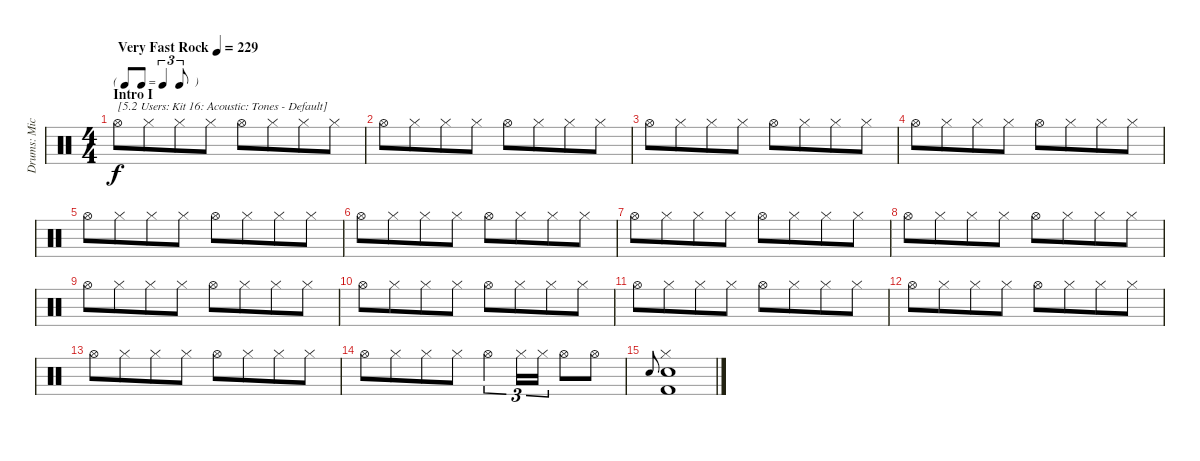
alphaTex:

\track ("Drums: Mick" "Drums: Mic") {instrument percussion}
\staff {score}
\articulation defaults
\ts (4 4)
\tf triplet8th
\section ("" "Intro I")
\tempo (229 "Very Fast Rock")
\clef neutral
\ks c "Hi-Hat (open)".8{txt "[5.2 Users: Kit 16: Acoustic: Tones - Default]" dy f} "Hi-Hat (closed)".8{beam merge} "Hi-Hat (closed)".8 "Hi-Hat (closed)".8 "Hi-Hat (open)".8 "Hi-Hat (closed)".8{beam merge} "Hi-Hat (closed)".8 "Hi-Hat (closed)".8
|
"Hi-Hat (open)".8 "Hi-Hat (closed)".8{beam merge} "Hi-Hat (closed)".8 "Hi-Hat (closed)".8 "Hi-Hat (open)".8 "Hi-Hat (closed)".8{beam merge} "Hi-Hat (closed)".8 "Hi-Hat (closed)".8 |
"Hi-Hat (open)".8 "Hi-Hat (closed)".8{beam merge} "Hi-Hat (closed)".8 "Hi-Hat (closed)".8 "Hi-Hat (open)".8 "Hi-Hat (closed)".8{beam merge} "Hi-Hat (closed)".8 "Hi-Hat (closed)".8 |
"Hi-Hat (open)".8 "Hi-Hat (closed)".8{beam merge} "Hi-Hat (closed)".8 "Hi-Hat (closed)".8 "Hi-Hat (open)".8 "Hi-Hat (closed)".8{beam merge} "Hi-Hat (closed)".8 "Hi-Hat (closed)".8 |
"Hi-Hat (open)".8 "Hi-Hat (closed)".8{beam merge} "Hi-Hat (closed)".8 "Hi-Hat (closed)".8 "Hi-Hat (open)".8 "Hi-Hat (closed)".8{beam merge} "Hi-Hat (closed)".8 "Hi-Hat (closed)".8 |
"Hi-Hat (open)".8 "Hi-Hat (closed)".8{beam merge} "Hi-Hat (closed)".8 "Hi-Hat (closed)".8 "Hi-Hat (open)".8 "Hi-Hat (closed)".8{beam merge} "Hi-Hat (closed)".8 "Hi-Hat (closed)".8 |
"Hi-Hat (open)".8 "Hi-Hat (closed)".8{beam merge} "Hi-Hat (closed)".8 "Hi-Hat (closed)".8 "Hi-Hat (open)".8 "Hi-Hat (closed)".8{beam merge} "Hi-Hat (closed)".8 "Hi-Hat (closed)".8 |
"Hi-Hat (open)".8 "Hi-Hat (closed)".8{beam merge} "Hi-Hat (closed)".8 "Hi-Hat (closed)".8 "Hi-Hat (open)".8 "Hi-Hat (closed)".8{beam merge} "Hi-Hat (closed)".8 "Hi-Hat (closed)".8 |
"Hi-Hat (open)".8 "Hi-Hat (closed)".8{beam merge} "Hi-Hat (closed)".8 "Hi-Hat (closed)".8 "Hi-Hat (open)".8 "Hi-Hat (closed)".8{beam merge} "Hi-Hat (closed)".8 "Hi-Hat (closed)".8 |
"Hi-Hat (open)".8 "Hi-Hat (closed)".8{beam merge} "Hi-Hat (closed)".8 "Hi-Hat (closed)".8 "Hi-Hat (open)".8 "Hi-Hat (closed)".8{beam merge} "Hi-Hat (closed)".8 "Hi-Hat (closed)".8 |
"Hi-Hat (open)".8 "Hi-Hat (closed)".8{beam merge} "Hi-Hat (closed)".8 "Hi-Hat (closed)".8 "Hi-Hat (open)".8 "Hi-Hat (closed)".8{beam merge} "Hi-Hat (closed)".8 "Hi-Hat (closed)".8 |
"Hi-Hat (open)".8 "Hi-Hat (closed)".8{beam merge} "Hi-Hat (closed)".8 "Hi-Hat (closed)".8 "Hi-Hat (open)".8 "Hi-Hat (closed)".8{beam merge} "Hi-Hat (closed)".8 "Hi-Hat (closed)".8 |
"Hi-Hat (open)".8 "Hi-Hat (closed)".8{beam merge} "Hi-Hat (closed)".8 "Hi-Hat (closed)".8 "Hi-Hat (open)".8 "Hi-Hat (closed)".8{beam merge} "Hi-Hat (closed)".8 "Hi-Hat (closed)".8 |
"Hi-Hat (open)".8 "Hi-Hat (closed)".8{beam merge} "Hi-Hat (closed)".8 "Hi-Hat (closed)".8 "Hi-Hat (open)".4{tu (3 2)} "Hi-Hat (closed)".16{tu (3 2)} "Hi-Hat (closed)".16{tu (3 2)} "Hi-Hat (open)".8 "Hi-Hat (open)".8 |
"Electric Snare (hit)".8{gr onbeat} ("Hi-Hat (closed)" "Snare (hit) 2" "Kick (hit) 2").1
